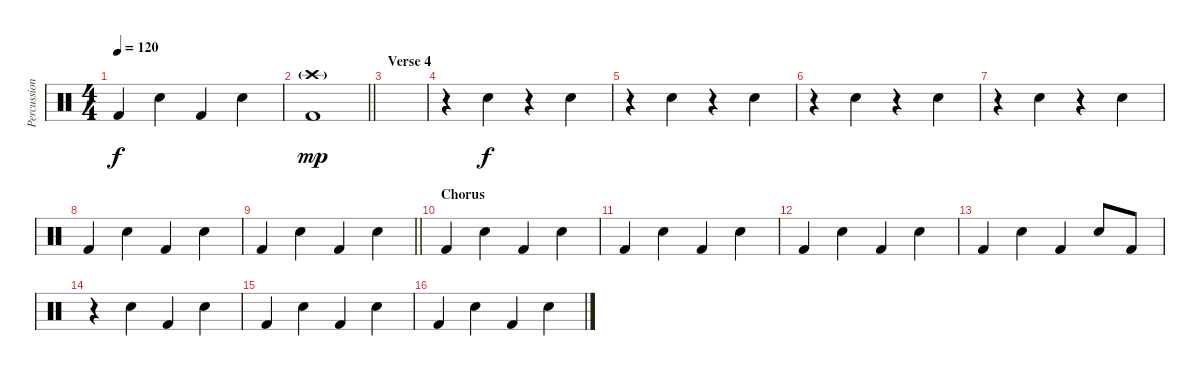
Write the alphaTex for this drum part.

\track ("Percussion" "Percussion") {instrument percussion}
\staff {score}
\articulation defaults
\ts (4 4)
\tempo 120
\clef neutral
\ks c "Kick (hit) 2".4{dy f} "Snare (hit) 2".4 "Kick (hit) 2".4 "Snare (hit) 2".4
|
\barLineRight lightlight
("Crash high (hit)"{g} "Kick (hit) 2").1{dy mp} |
\section ("" "Verse 4")
|
r.4 "Snare (hit) 2".4{dy f} r.4 "Snare (hit) 2".4 |
r.4 "Snare (hit) 2".4 r.4 "Snare (hit) 2".4 |
r.4 "Snare (hit) 2".4 r.4 "Snare (hit) 2".4 |
r.4 "Snare (hit) 2".4 r.4 "Snare (hit) 2".4 |
"Kick (hit) 2".4 "Snare (hit) 2".4 "Kick (hit) 2".4 "Snare (hit) 2".4 |
\barLineRight lightlight "Kick (hit) 2".4 "Snare (hit) 2".4 "Kick (hit) 2".4 "Snare (hit) 2".4
|
\section ("" "Chorus")
"Kick (hit) 2".4 "Snare (hit) 2".4 "Kick (hit) 2".4 "Snare (hit) 2".4 |
"Kick (hit) 2".4 "Snare (hit) 2".4 "Kick (hit) 2".4 "Snare (hit) 2".4 |
"Kick (hit) 2".4 "Snare (hit) 2".4 "Kick (hit) 2".4 "Snare (hit) 2".4 |
"Kick (hit) 2".4 "Snare (hit) 2".4 "Kick (hit) 2".4 "Snare (hit) 2".8 "Kick (hit) 2".8 |
r.4 "Snare (hit) 2".4 "Kick (hit) 2".4 "Snare (hit) 2".4 |
"Kick (hit) 2".4 "Snare (hit) 2".4 "Kick (hit) 2".4 "Snare (hit) 2".4 |
"Kick (hit) 2".4 "Snare (hit) 2".4 "Kick (hit) 2".4 "Snare (hit) 2".4
